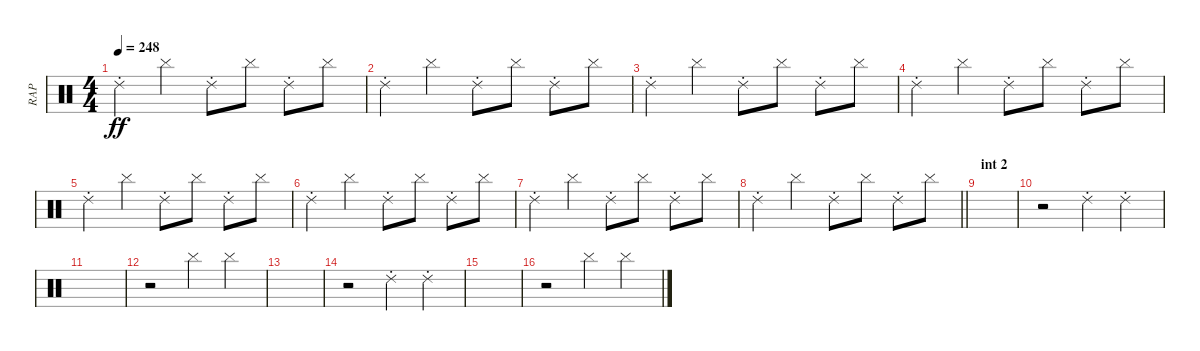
\track ("RAP" "RAP") {instrument percussion}
\staff {score}
\articulation defaults
\ts (4 4)
\tempo 248
\clef neutral
\ks c "Ride (choke) 2".4{dy ff} "Cymbal (hit)".4 "Ride (choke) 2".8 "Cymbal (hit)".8 "Ride (choke) 2".8 "Cymbal (hit)".8
|
"Ride (choke) 2".4 "Cymbal (hit)".4 "Ride (choke) 2".8 "Cymbal (hit)".8 "Ride (choke) 2".8 "Cymbal (hit)".8 |
"Ride (choke) 2".4 "Cymbal (hit)".4 "Ride (choke) 2".8 "Cymbal (hit)".8 "Ride (choke) 2".8 "Cymbal (hit)".8 |
"Ride (choke) 2".4 "Cymbal (hit)".4 "Ride (choke) 2".8 "Cymbal (hit)".8 "Ride (choke) 2".8 "Cymbal (hit)".8 |
"Ride (choke) 2".4 "Cymbal (hit)".4 "Ride (choke) 2".8 "Cymbal (hit)".8 "Ride (choke) 2".8 "Cymbal (hit)".8 |
"Ride (choke) 2".4 "Cymbal (hit)".4 "Ride (choke) 2".8 "Cymbal (hit)".8 "Ride (choke) 2".8 "Cymbal (hit)".8 |
"Ride (choke) 2".4 "Cymbal (hit)".4 "Ride (choke) 2".8 "Cymbal (hit)".8 "Ride (choke) 2".8 "Cymbal (hit)".8 |
\barLineRight lightlight "Ride (choke) 2".4 "Cymbal (hit)".4 "Ride (choke) 2".8 "Cymbal (hit)".8 "Ride (choke) 2".8 "Cymbal (hit)".8
|
\section ("" "int 2")
|
r.2 "Ride (choke) 2".4 "Ride (choke) 2".4 |
|
r.2 "Cymbal (hit)".4 "Cymbal (hit)".4 |
|
r.2 "Ride (choke) 2".4 "Ride (choke) 2".4 |
|
r.2 "Cymbal (hit)".4 "Cymbal (hit)".4
